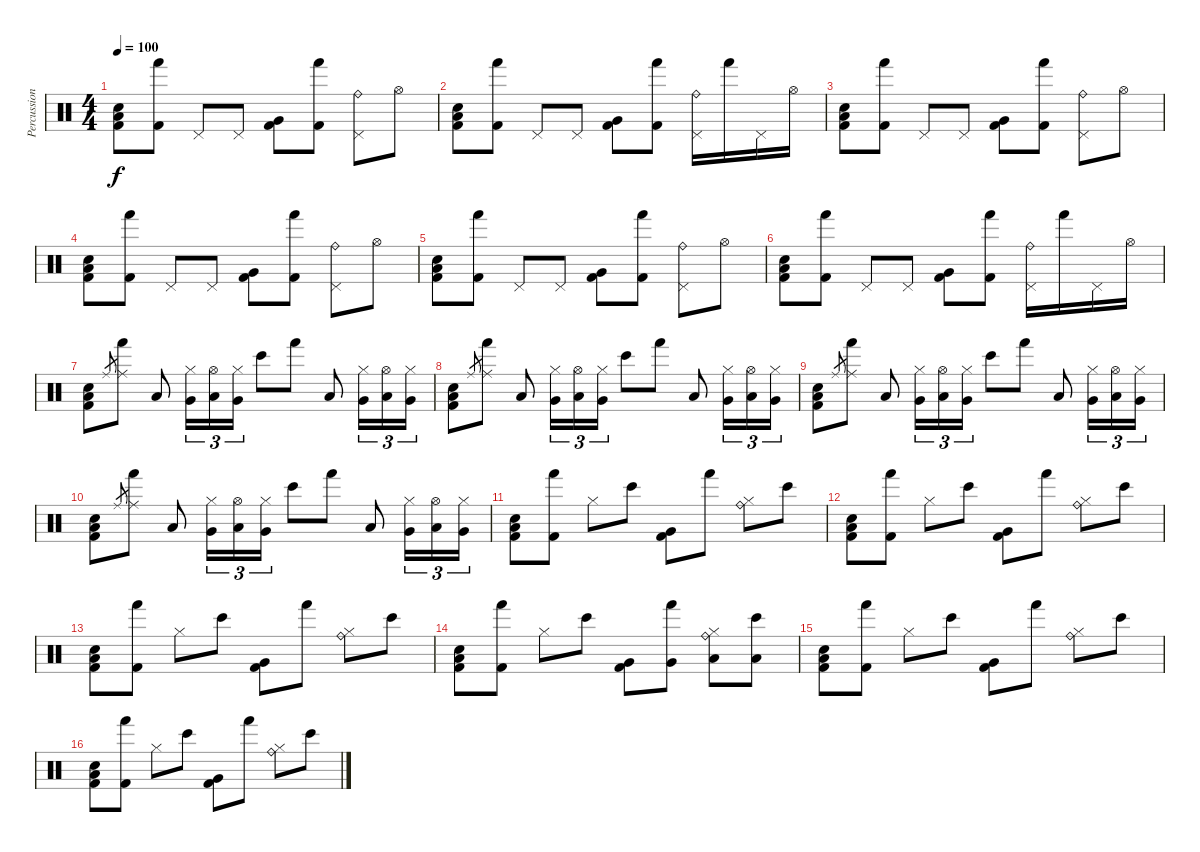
\track ("Percussion" "Percussion") {instrument percussion}
\staff {score}
\articulation defaults
\ts (4 4)
\tempo 100
\clef neutral
\ks c
("Electric Snare (hit)" "Low Floor Tom (hit)" "Kick (hit) 2").8{dy f} ("Hand (hit)" "Kick (hit) 2").8 "Pedal Hi-Hat (hit)".8 "Pedal Hi-Hat (hit)".8 ("Very Low Tom (hit)" "Kick (hit) 2").8 ("Hand (hit)" "Kick (hit) 2").8 ("Pedal Hi-Hat (hit)" "Ride (bell)").8 "Hi-Hat (open)".8 |
("Electric Snare (hit)" "Low Floor Tom (hit)" "Kick (hit) 2").8 ("Hand (hit)" "Kick (hit) 2").8 "Pedal Hi-Hat (hit)".8 "Pedal Hi-Hat (hit)".8 ("Very Low Tom (hit)" "Kick (hit) 2").8 ("Hand (hit)" "Kick (hit) 2").8 ("Pedal Hi-Hat (hit)" "Ride (bell)").16 "Hand (hit)".16 "Pedal Hi-Hat (hit)".16 "Hi-Hat (open)".16 |
("Electric Snare (hit)" "Low Floor Tom (hit)" "Kick (hit) 2").8 ("Hand (hit)" "Kick (hit) 2").8 "Pedal Hi-Hat (hit)".8 "Pedal Hi-Hat (hit)".8 ("Very Low Tom (hit)" "Kick (hit) 2").8 ("Hand (hit)" "Kick (hit) 2").8 ("Pedal Hi-Hat (hit)" "Ride (bell)").8 "Hi-Hat (open)".8 |
("Electric Snare (hit)" "Low Floor Tom (hit)" "Kick (hit) 2").8 ("Hand (hit)" "Kick (hit) 2").8 "Pedal Hi-Hat (hit)".8 "Pedal Hi-Hat (hit)".8 ("Very Low Tom (hit)" "Kick (hit) 2").8 ("Hand (hit)" "Kick (hit) 2").8 ("Pedal Hi-Hat (hit)" "Ride (bell)").8 "Hi-Hat (open)".8 |
("Electric Snare (hit)" "Low Floor Tom (hit)" "Kick (hit) 2").8 ("Hand (hit)" "Kick (hit) 2").8 "Pedal Hi-Hat (hit)".8 "Pedal Hi-Hat (hit)".8 ("Very Low Tom (hit)" "Kick (hit) 2").8 ("Hand (hit)" "Kick (hit) 2").8 ("Pedal Hi-Hat (hit)" "Ride (bell)").8 "Hi-Hat (open)".8 |
("Electric Snare (hit)" "Low Floor Tom (hit)" "Kick (hit) 2").8 ("Hand (hit)" "Kick (hit) 2").8 "Pedal Hi-Hat (hit)".8 "Pedal Hi-Hat (hit)".8 ("Very Low Tom (hit)" "Kick (hit) 2").8 ("Hand (hit)" "Kick (hit) 2").8 ("Pedal Hi-Hat (hit)" "Ride (bell)").16 "Hand (hit)".16 "Pedal Hi-Hat (hit)".16 "Hi-Hat (open)".16 |
("Electric Snare (hit)" "Low Floor Tom (hit)" "Kick (hit) 2").8 "Ride (middle)".8{gr} ("Ride (middle)" "Hand (hit)").8 "Low Floor Tom (hit)".8 ("Hi-Hat (closed)" "Very Low Tom (hit)").16{tu (3 2)} ("Hi-Hat (open)" "Low Floor Tom (hit)").16{tu (3 2)} ("Hi-Hat (closed)" "Very Low Tom (hit)").16{tu (3 2)} "Bongo High (hit)".8 "Hand (hit)".8 "Low Floor Tom (hit)".8 ("Hi-Hat (closed)" "Very Low Tom (hit)").16{tu (3 2)} ("Hi-Hat (open)" "Low Floor Tom (hit)").16{tu (3 2)} ("Hi-Hat (closed)" "Very Low Tom (hit)").16{tu (3 2)} |
("Electric Snare (hit)" "Low Floor Tom (hit)" "Kick (hit) 2").8 "Ride (middle)".8{gr} ("Ride (middle)" "Hand (hit)").8 "Low Floor Tom (hit)".8 ("Hi-Hat (closed)" "Very Low Tom (hit)").16{tu (3 2)} ("Hi-Hat (open)" "Low Floor Tom (hit)").16{tu (3 2)} ("Hi-Hat (closed)" "Very Low Tom (hit)").16{tu (3 2)} "Bongo High (hit)".8 "Hand (hit)".8 "Low Floor Tom (hit)".8 ("Hi-Hat (closed)" "Very Low Tom (hit)").16{tu (3 2)} ("Hi-Hat (open)" "Low Floor Tom (hit)").16{tu (3 2)} ("Hi-Hat (closed)" "Very Low Tom (hit)").16{tu (3 2)} |
("Electric Snare (hit)" "Low Floor Tom (hit)" "Kick (hit) 2").8 "Ride (middle)".8{gr} ("Ride (middle)" "Hand (hit)").8 "Low Floor Tom (hit)".8 ("Hi-Hat (closed)" "Very Low Tom (hit)").16{tu (3 2)} ("Hi-Hat (open)" "Low Floor Tom (hit)").16{tu (3 2)} ("Hi-Hat (closed)" "Very Low Tom (hit)").16{tu (3 2)} "Bongo High (hit)".8 "Hand (hit)".8 "Low Floor Tom (hit)".8 ("Hi-Hat (closed)" "Very Low Tom (hit)").16{tu (3 2)} ("Hi-Hat (open)" "Low Floor Tom (hit)").16{tu (3 2)} ("Hi-Hat (closed)" "Very Low Tom (hit)").16{tu (3 2)} |
("Electric Snare (hit)" "Low Floor Tom (hit)" "Kick (hit) 2").8 "Ride (middle)".8{gr} ("Ride (middle)" "Hand (hit)").8 "Low Floor Tom (hit)".8 ("Hi-Hat (closed)" "Very Low Tom (hit)").16{tu (3 2)} ("Hi-Hat (open)" "Low Floor Tom (hit)").16{tu (3 2)} ("Hi-Hat (closed)" "Very Low Tom (hit)").16{tu (3 2)} "Bongo High (hit)".8 "Hand (hit)".8 "Low Floor Tom (hit)".8 ("Hi-Hat (closed)" "Very Low Tom (hit)").16{tu (3 2)} ("Hi-Hat (open)" "Low Floor Tom (hit)").16{tu (3 2)} ("Hi-Hat (closed)" "Very Low Tom (hit)").16{tu (3 2)} |
("Electric Snare (hit)" "Low Floor Tom (hit)" "Kick (hit) 2").8 ("Hand (hit)" "Kick (hit) 2").8 "Hi-Hat (closed)".8 "Bongo High (hit)".8 ("Very Low Tom (hit)" "Kick (hit) 2").8 "Hand (hit)".8 ("Hi-Hat (closed)" "Ride (bell)").8 "Bongo High (hit)".8 |
("Electric Snare (hit)" "Low Floor Tom (hit)" "Kick (hit) 2").8 ("Hand (hit)" "Kick (hit) 2").8 "Hi-Hat (closed)".8 "Bongo High (hit)".8 ("Very Low Tom (hit)" "Kick (hit) 2").8 "Hand (hit)".8 ("Hi-Hat (closed)" "Ride (bell)").8 "Bongo High (hit)".8 |
("Electric Snare (hit)" "Low Floor Tom (hit)" "Kick (hit) 2").8 ("Hand (hit)" "Kick (hit) 2").8 "Hi-Hat (closed)".8 "Bongo High (hit)".8 ("Very Low Tom (hit)" "Kick (hit) 2").8 "Hand (hit)".8 ("Hi-Hat (closed)" "Ride (bell)").8 "Bongo High (hit)".8 |
("Electric Snare (hit)" "Low Floor Tom (hit)" "Kick (hit) 2").8 ("Hand (hit)" "Kick (hit) 2").8 "Hi-Hat (closed)".8 "Bongo High (hit)".8 ("Very Low Tom (hit)" "Kick (hit) 2").8 ("Hand (hit)" "Very Low Tom (hit)").8 ("Hi-Hat (closed)" "Ride (bell)" "Low Floor Tom (hit)").8 ("Bongo High (hit)" "Low Floor Tom (hit)").8 |
("Electric Snare (hit)" "Low Floor Tom (hit)" "Kick (hit) 2").8 ("Hand (hit)" "Kick (hit) 2").8 "Hi-Hat (closed)".8 "Bongo High (hit)".8 ("Very Low Tom (hit)" "Kick (hit) 2").8 "Hand (hit)".8 ("Hi-Hat (closed)" "Ride (bell)").8 "Bongo High (hit)".8 |
("Electric Snare (hit)" "Low Floor Tom (hit)" "Kick (hit) 2").8 ("Hand (hit)" "Kick (hit) 2").8 "Hi-Hat (closed)".8 "Bongo High (hit)".8 ("Very Low Tom (hit)" "Kick (hit) 2").8 "Hand (hit)".8 ("Hi-Hat (closed)" "Ride (bell)").8 "Bongo High (hit)".8
